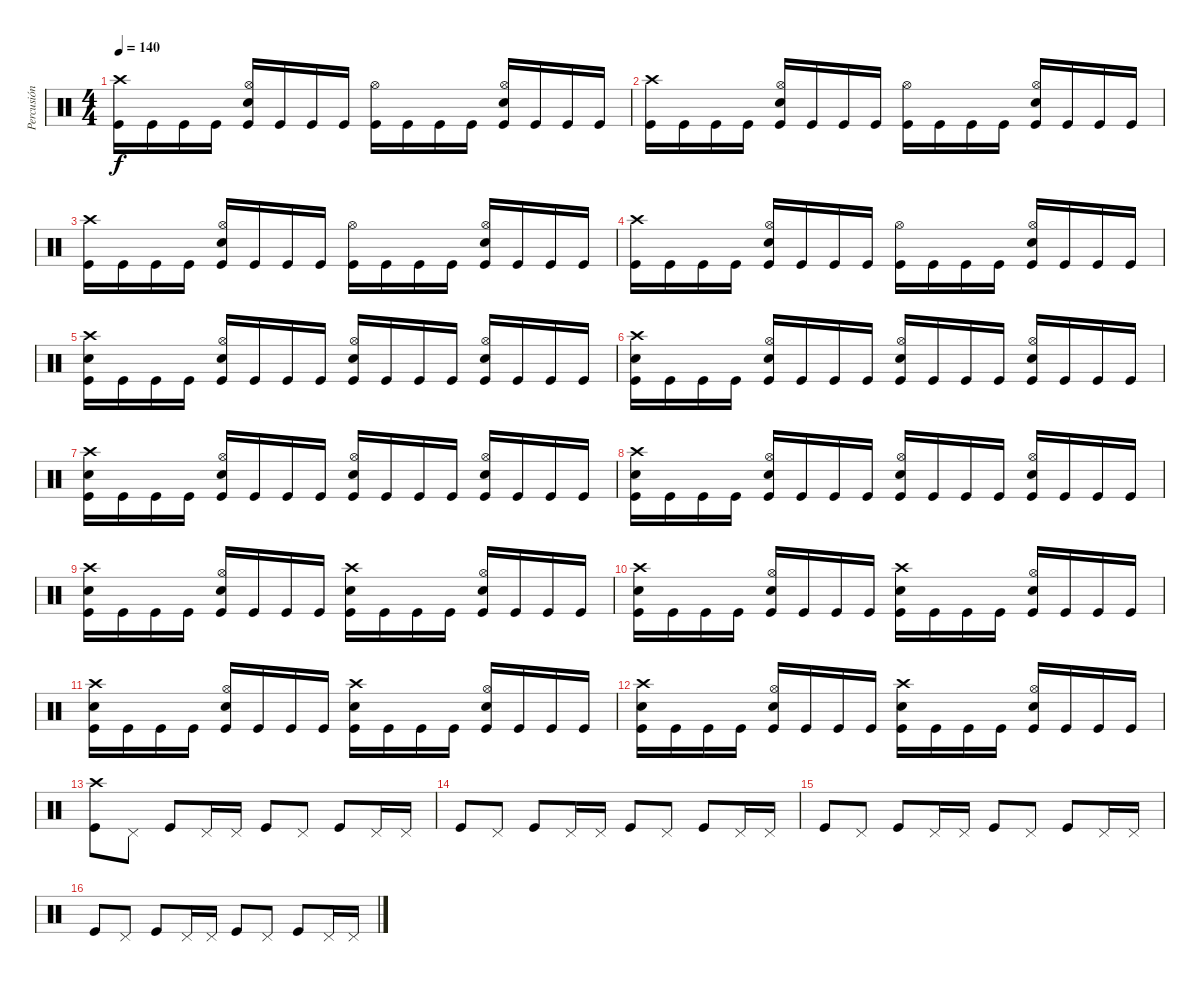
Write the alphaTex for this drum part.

\track ("Percusión" "Percusión") {instrument percussion}
\staff {score}
\articulation defaults
\ts (4 4)
\tempo 140
\clef neutral
\ks c
("Crash high (hit)" "Kick (hit)").16{dy f} "Kick (hit)".16 "Kick (hit)".16 "Kick (hit)".16 ("Hi-Hat (open)" "Electric Snare (hit)" "Kick (hit)").16 "Kick (hit)".16 "Kick (hit)".16 "Kick (hit)".16 ("Hi-Hat (open)" "Kick (hit)").16 "Kick (hit)".16 "Kick (hit)".16 "Kick (hit)".16 ("Hi-Hat (open)" "Electric Snare (hit)" "Kick (hit)").16 "Kick (hit)".16 "Kick (hit)".16 "Kick (hit)".16 |
("Crash high (hit)" "Kick (hit)").16 "Kick (hit)".16 "Kick (hit)".16 "Kick (hit)".16 ("Hi-Hat (open)" "Electric Snare (hit)" "Kick (hit)").16 "Kick (hit)".16 "Kick (hit)".16 "Kick (hit)".16 ("Hi-Hat (open)" "Kick (hit)").16 "Kick (hit)".16 "Kick (hit)".16 "Kick (hit)".16 ("Hi-Hat (open)" "Electric Snare (hit)" "Kick (hit)").16 "Kick (hit)".16 "Kick (hit)".16 "Kick (hit)".16 |
("Crash high (hit)" "Kick (hit)").16 "Kick (hit)".16 "Kick (hit)".16 "Kick (hit)".16 ("Hi-Hat (open)" "Electric Snare (hit)" "Kick (hit)").16 "Kick (hit)".16 "Kick (hit)".16 "Kick (hit)".16 ("Hi-Hat (open)" "Kick (hit)").16 "Kick (hit)".16 "Kick (hit)".16 "Kick (hit)".16 ("Hi-Hat (open)" "Electric Snare (hit)" "Kick (hit)").16 "Kick (hit)".16 "Kick (hit)".16 "Kick (hit)".16 |
("Crash high (hit)" "Kick (hit)").16 "Kick (hit)".16 "Kick (hit)".16 "Kick (hit)".16 ("Hi-Hat (open)" "Electric Snare (hit)" "Kick (hit)").16 "Kick (hit)".16 "Kick (hit)".16 "Kick (hit)".16 ("Hi-Hat (open)" "Kick (hit)").16 "Kick (hit)".16 "Kick (hit)".16 "Kick (hit)".16 ("Hi-Hat (open)" "Electric Snare (hit)" "Kick (hit)").16 "Kick (hit)".16 "Kick (hit)".16 "Kick (hit)".16 |
("Crash high (hit)" "Electric Snare (hit)" "Kick (hit)").16 "Kick (hit)".16 "Kick (hit)".16 "Kick (hit)".16 ("Hi-Hat (open)" "Electric Snare (hit)" "Kick (hit)").16 "Kick (hit)".16 "Kick (hit)".16 "Kick (hit)".16 ("Hi-Hat (open)" "Electric Snare (hit)" "Kick (hit)").16 "Kick (hit)".16 "Kick (hit)".16 "Kick (hit)".16 ("Hi-Hat (open)" "Electric Snare (hit)" "Kick (hit)").16 "Kick (hit)".16 "Kick (hit)".16 "Kick (hit)".16 |
("Crash high (hit)" "Electric Snare (hit)" "Kick (hit)").16 "Kick (hit)".16 "Kick (hit)".16 "Kick (hit)".16 ("Hi-Hat (open)" "Electric Snare (hit)" "Kick (hit)").16 "Kick (hit)".16 "Kick (hit)".16 "Kick (hit)".16 ("Hi-Hat (open)" "Electric Snare (hit)" "Kick (hit)").16 "Kick (hit)".16 "Kick (hit)".16 "Kick (hit)".16 ("Hi-Hat (open)" "Electric Snare (hit)" "Kick (hit)").16 "Kick (hit)".16 "Kick (hit)".16 "Kick (hit)".16 |
("Crash high (hit)" "Electric Snare (hit)" "Kick (hit)").16 "Kick (hit)".16 "Kick (hit)".16 "Kick (hit)".16 ("Hi-Hat (open)" "Electric Snare (hit)" "Kick (hit)").16 "Kick (hit)".16 "Kick (hit)".16 "Kick (hit)".16 ("Hi-Hat (open)" "Electric Snare (hit)" "Kick (hit)").16 "Kick (hit)".16 "Kick (hit)".16 "Kick (hit)".16 ("Hi-Hat (open)" "Electric Snare (hit)" "Kick (hit)").16 "Kick (hit)".16 "Kick (hit)".16 "Kick (hit)".16 |
("Crash high (hit)" "Electric Snare (hit)" "Kick (hit)").16 "Kick (hit)".16 "Kick (hit)".16 "Kick (hit)".16 ("Hi-Hat (open)" "Electric Snare (hit)" "Kick (hit)").16 "Kick (hit)".16 "Kick (hit)".16 "Kick (hit)".16 ("Hi-Hat (open)" "Electric Snare (hit)" "Kick (hit)").16 "Kick (hit)".16 "Kick (hit)".16 "Kick (hit)".16 ("Hi-Hat (open)" "Electric Snare (hit)" "Kick (hit)").16 "Kick (hit)".16 "Kick (hit)".16 "Kick (hit)".16 |
("Crash high (hit)" "Electric Snare (hit)" "Kick (hit)").16 "Kick (hit)".16 "Kick (hit)".16 "Kick (hit)".16 ("Hi-Hat (open)" "Electric Snare (hit)" "Kick (hit)").16 "Kick (hit)".16 "Kick (hit)".16 "Kick (hit)".16 ("Crash high (hit)" "Electric Snare (hit)" "Kick (hit)").16 "Kick (hit)".16 "Kick (hit)".16 "Kick (hit)".16 ("Hi-Hat (open)" "Electric Snare (hit)" "Kick (hit)").16 "Kick (hit)".16 "Kick (hit)".16 "Kick (hit)".16 |
("Crash high (hit)" "Electric Snare (hit)" "Kick (hit)").16 "Kick (hit)".16 "Kick (hit)".16 "Kick (hit)".16 ("Hi-Hat (open)" "Electric Snare (hit)" "Kick (hit)").16 "Kick (hit)".16 "Kick (hit)".16 "Kick (hit)".16 ("Crash high (hit)" "Electric Snare (hit)" "Kick (hit)").16 "Kick (hit)".16 "Kick (hit)".16 "Kick (hit)".16 ("Hi-Hat (open)" "Electric Snare (hit)" "Kick (hit)").16 "Kick (hit)".16 "Kick (hit)".16 "Kick (hit)".16 |
("Crash high (hit)" "Electric Snare (hit)" "Kick (hit)").16 "Kick (hit)".16 "Kick (hit)".16 "Kick (hit)".16 ("Hi-Hat (open)" "Electric Snare (hit)" "Kick (hit)").16 "Kick (hit)".16 "Kick (hit)".16 "Kick (hit)".16 ("Crash high (hit)" "Electric Snare (hit)" "Kick (hit)").16 "Kick (hit)".16 "Kick (hit)".16 "Kick (hit)".16 ("Hi-Hat (open)" "Electric Snare (hit)" "Kick (hit)").16 "Kick (hit)".16 "Kick (hit)".16 "Kick (hit)".16 |
("Crash high (hit)" "Electric Snare (hit)" "Kick (hit)").16 "Kick (hit)".16 "Kick (hit)".16 "Kick (hit)".16 ("Hi-Hat (open)" "Electric Snare (hit)" "Kick (hit)").16 "Kick (hit)".16 "Kick (hit)".16 "Kick (hit)".16 ("Crash high (hit)" "Electric Snare (hit)" "Kick (hit)").16 "Kick (hit)".16 "Kick (hit)".16 "Kick (hit)".16 ("Hi-Hat (open)" "Electric Snare (hit)" "Kick (hit)").16 "Kick (hit)".16 "Kick (hit)".16 "Kick (hit)".16 |
("Crash high (hit)" "Kick (hit)").8 "Pedal Hi-Hat (hit)".8 "Kick (hit)".8 "Pedal Hi-Hat (hit)".16 "Pedal Hi-Hat (hit)".16 "Kick (hit)".8 "Pedal Hi-Hat (hit)".8 "Kick (hit)".8 "Pedal Hi-Hat (hit)".16 "Pedal Hi-Hat (hit)".16 |
"Kick (hit)".8 "Pedal Hi-Hat (hit)".8 "Kick (hit)".8 "Pedal Hi-Hat (hit)".16 "Pedal Hi-Hat (hit)".16 "Kick (hit)".8 "Pedal Hi-Hat (hit)".8 "Kick (hit)".8 "Pedal Hi-Hat (hit)".16 "Pedal Hi-Hat (hit)".16 |
"Kick (hit)".8 "Pedal Hi-Hat (hit)".8 "Kick (hit)".8 "Pedal Hi-Hat (hit)".16 "Pedal Hi-Hat (hit)".16 "Kick (hit)".8 "Pedal Hi-Hat (hit)".8 "Kick (hit)".8 "Pedal Hi-Hat (hit)".16 "Pedal Hi-Hat (hit)".16 |
"Kick (hit)".8 "Pedal Hi-Hat (hit)".8 "Kick (hit)".8 "Pedal Hi-Hat (hit)".16 "Pedal Hi-Hat (hit)".16 "Kick (hit)".8 "Pedal Hi-Hat (hit)".8 "Kick (hit)".8 "Pedal Hi-Hat (hit)".16 "Pedal Hi-Hat (hit)".16
